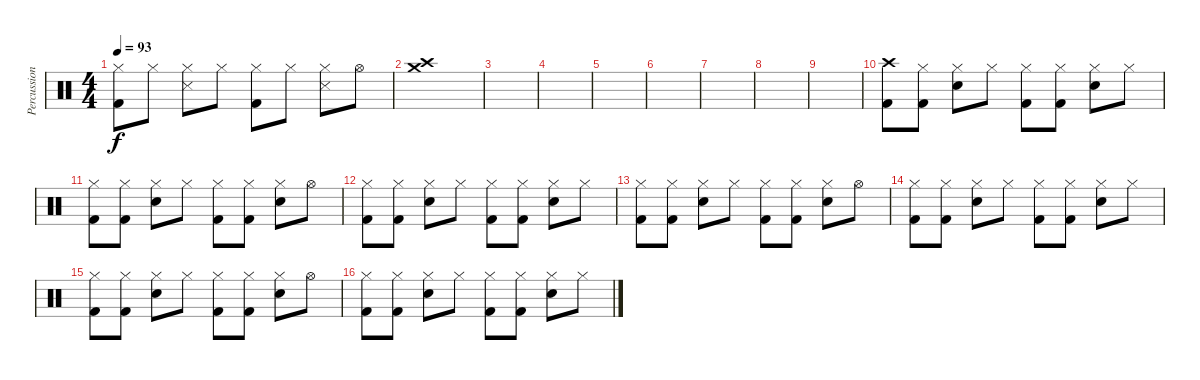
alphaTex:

\track ("Percussioni" "Percussion") {instrument percussion}
\staff {score}
\articulation defaults
\ts (4 4)
\tempo 93
\clef neutral
\ks c
("Hi-Hat (closed)" "Kick (hit) 2").8{dy f} "Hi-Hat (closed)".8 ("Hi-Hat (closed)" "Snare (side stick) 3").8 "Hi-Hat (closed)".8 ("Hi-Hat (closed)" "Kick (hit) 2").8 "Hi-Hat (closed)".8 ("Hi-Hat (closed)" "Snare (side stick) 3").8 "Hi-Hat (open)".8 |
("Crash high (hit)" "Crash medium (hit)").1 |
|
|
|
|
|
|
|
("Crash high (hit)" "Kick (hit) 2").8 ("Hi-Hat (closed)" "Kick (hit) 2").8 ("Hi-Hat (closed)" "Snare (hit) 2").8 "Hi-Hat (closed)".8 ("Hi-Hat (closed)" "Kick (hit) 2").8 ("Hi-Hat (closed)" "Kick (hit) 2").8 ("Hi-Hat (closed)" "Snare (hit) 2").8 "Hi-Hat (closed)".8 |
("Hi-Hat (closed)" "Kick (hit) 2").8 ("Hi-Hat (closed)" "Kick (hit) 2").8 ("Hi-Hat (closed)" "Snare (hit) 2").8 "Hi-Hat (closed)".8 ("Hi-Hat (closed)" "Kick (hit) 2").8 ("Hi-Hat (closed)" "Kick (hit) 2").8 ("Hi-Hat (closed)" "Snare (hit) 2").8 "Hi-Hat (open)".8 |
("Hi-Hat (closed)" "Kick (hit) 2").8 ("Hi-Hat (closed)" "Kick (hit) 2").8 ("Hi-Hat (closed)" "Snare (hit) 2").8 "Hi-Hat (closed)".8 ("Hi-Hat (closed)" "Kick (hit) 2").8 ("Hi-Hat (closed)" "Kick (hit) 2").8 ("Hi-Hat (closed)" "Snare (hit) 2").8 "Hi-Hat (closed)".8 |
("Hi-Hat (closed)" "Kick (hit) 2").8 ("Hi-Hat (closed)" "Kick (hit) 2").8 ("Hi-Hat (closed)" "Snare (hit) 2").8 "Hi-Hat (closed)".8 ("Hi-Hat (closed)" "Kick (hit) 2").8 ("Hi-Hat (closed)" "Kick (hit) 2").8 ("Hi-Hat (closed)" "Snare (hit) 2").8 "Hi-Hat (open)".8 |
("Hi-Hat (closed)" "Kick (hit) 2").8 ("Hi-Hat (closed)" "Kick (hit) 2").8 ("Hi-Hat (closed)" "Snare (hit) 2").8 "Hi-Hat (closed)".8 ("Hi-Hat (closed)" "Kick (hit) 2").8 ("Hi-Hat (closed)" "Kick (hit) 2").8 ("Hi-Hat (closed)" "Snare (hit) 2").8 "Hi-Hat (closed)".8 |
("Hi-Hat (closed)" "Kick (hit) 2").8 ("Hi-Hat (closed)" "Kick (hit) 2").8 ("Hi-Hat (closed)" "Snare (hit) 2").8 "Hi-Hat (closed)".8 ("Hi-Hat (closed)" "Kick (hit) 2").8 ("Hi-Hat (closed)" "Kick (hit) 2").8 ("Hi-Hat (closed)" "Snare (hit) 2").8 "Hi-Hat (open)".8 |
("Hi-Hat (closed)" "Kick (hit) 2").8 ("Hi-Hat (closed)" "Kick (hit) 2").8 ("Hi-Hat (closed)" "Snare (hit) 2").8 "Hi-Hat (closed)".8 ("Hi-Hat (closed)" "Kick (hit) 2").8 ("Hi-Hat (closed)" "Kick (hit) 2").8 ("Hi-Hat (closed)" "Snare (hit) 2").8 "Hi-Hat (closed)".8
